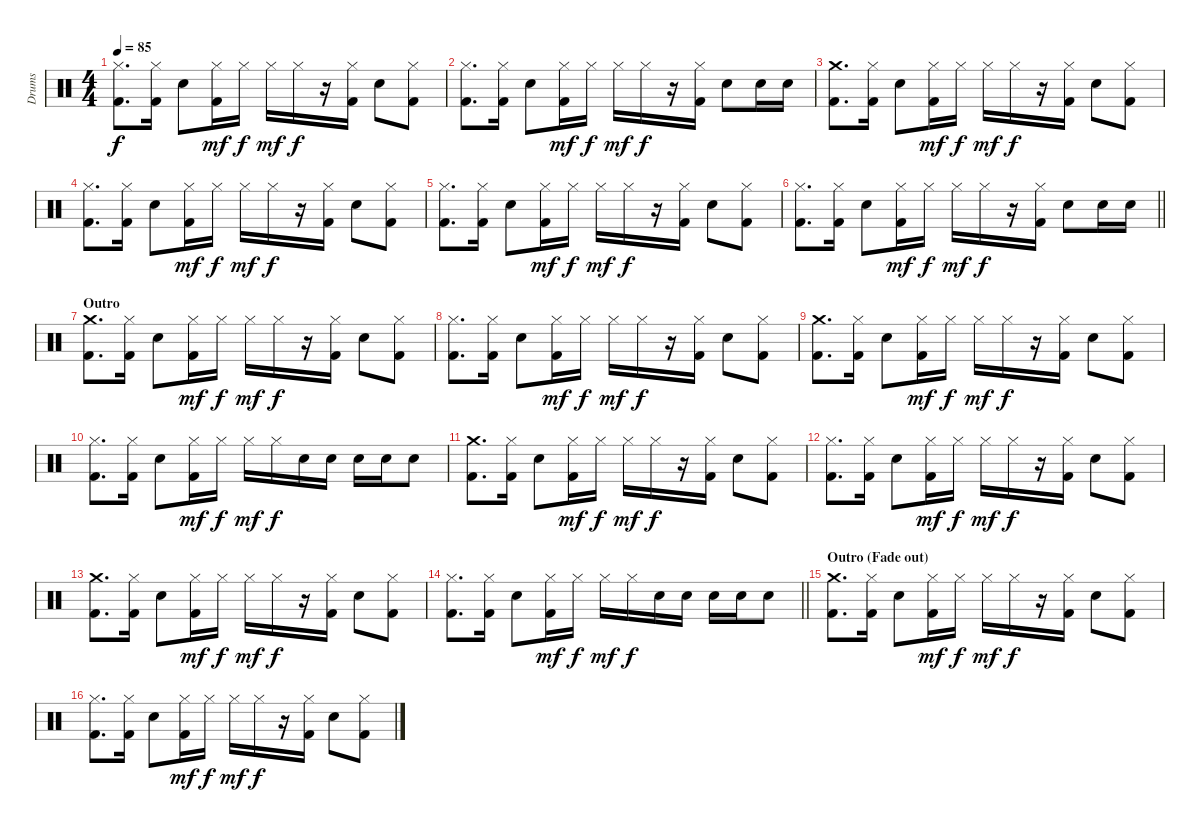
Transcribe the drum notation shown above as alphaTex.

\track ("Drums" "Drums") {instrument percussion}
\staff {score}
\articulation defaults
\ts (4 4)
\tempo 85
\clef neutral
\ks c
("Hi-Hat (closed)" "Kick (hit) 2").8{d dy f} ("Hi-Hat (closed)" "Kick (hit) 2").16 "Snare (hit) 2".8 ("Hi-Hat (closed)" "Kick (hit) 2").16{dy mf} "Hi-Hat (closed)".16{dy f} "Hi-Hat (closed)".16{dy mf} "Hi-Hat (closed)".16{dy f} r.16 ("Hi-Hat (closed)" "Kick (hit) 2").16 "Snare (hit) 2".8 ("Hi-Hat (closed)" "Kick (hit) 2").8 |
("Hi-Hat (closed)" "Kick (hit) 2").8{d} ("Hi-Hat (closed)" "Kick (hit) 2").16 "Snare (hit) 2".8 ("Hi-Hat (closed)" "Kick (hit) 2").16{dy mf} "Hi-Hat (closed)".16{dy f} "Hi-Hat (closed)".16{dy mf} "Hi-Hat (closed)".16{dy f} r.16 ("Hi-Hat (closed)" "Kick (hit) 2").16 "Snare (hit) 2".8 "Snare (hit) 2".16 "Snare (hit) 2".16 |
("Crash medium (hit)" "Kick (hit) 2").8{d} ("Hi-Hat (closed)" "Kick (hit) 2").16 "Snare (hit) 2".8 ("Hi-Hat (closed)" "Kick (hit) 2").16{dy mf} "Hi-Hat (closed)".16{dy f} "Hi-Hat (closed)".16{dy mf} "Hi-Hat (closed)".16{dy f} r.16 ("Hi-Hat (closed)" "Kick (hit) 2").16 "Snare (hit) 2".8 ("Hi-Hat (closed)" "Kick (hit) 2").8 |
("Hi-Hat (closed)" "Kick (hit) 2").8{d} ("Hi-Hat (closed)" "Kick (hit) 2").16 "Snare (hit) 2".8 ("Hi-Hat (closed)" "Kick (hit) 2").16{dy mf} "Hi-Hat (closed)".16{dy f} "Hi-Hat (closed)".16{dy mf} "Hi-Hat (closed)".16{dy f} r.16 ("Hi-Hat (closed)" "Kick (hit) 2").16 "Snare (hit) 2".8 ("Hi-Hat (closed)" "Kick (hit) 2").8 |
("Hi-Hat (closed)" "Kick (hit) 2").8{d} ("Hi-Hat (closed)" "Kick (hit) 2").16 "Snare (hit) 2".8 ("Hi-Hat (closed)" "Kick (hit) 2").16{dy mf} "Hi-Hat (closed)".16{dy f} "Hi-Hat (closed)".16{dy mf} "Hi-Hat (closed)".16{dy f} r.16 ("Hi-Hat (closed)" "Kick (hit) 2").16 "Snare (hit) 2".8 ("Hi-Hat (closed)" "Kick (hit) 2").8 |
\barLineRight lightlight
("Hi-Hat (closed)" "Kick (hit) 2").8{d} ("Hi-Hat (closed)" "Kick (hit) 2").16 "Snare (hit) 2".8 ("Hi-Hat (closed)" "Kick (hit) 2").16{dy mf} "Hi-Hat (closed)".16{dy f} "Hi-Hat (closed)".16{dy mf} "Hi-Hat (closed)".16{dy f} r.16 ("Hi-Hat (closed)" "Kick (hit) 2").16 "Snare (hit) 2".8 "Snare (hit) 2".16 "Snare (hit) 2".16 |
\section ("" "Outro")
("Crash medium (hit)" "Kick (hit) 2").8{d} ("Hi-Hat (closed)" "Kick (hit) 2").16 "Snare (hit) 2".8 ("Hi-Hat (closed)" "Kick (hit) 2").16{dy mf} "Hi-Hat (closed)".16{dy f} "Hi-Hat (closed)".16{dy mf} "Hi-Hat (closed)".16{dy f} r.16 ("Hi-Hat (closed)" "Kick (hit) 2").16 "Snare (hit) 2".8 ("Hi-Hat (closed)" "Kick (hit) 2").8 |
("Hi-Hat (closed)" "Kick (hit) 2").8{d} ("Hi-Hat (closed)" "Kick (hit) 2").16 "Snare (hit) 2".8 ("Hi-Hat (closed)" "Kick (hit) 2").16{dy mf} "Hi-Hat (closed)".16{dy f} "Hi-Hat (closed)".16{dy mf} "Hi-Hat (closed)".16{dy f} r.16 ("Hi-Hat (closed)" "Kick (hit) 2").16 "Snare (hit) 2".8 ("Hi-Hat (closed)" "Kick (hit) 2").8 |
("Crash medium (hit)" "Kick (hit) 2").8{d} ("Hi-Hat (closed)" "Kick (hit) 2").16 "Snare (hit) 2".8 ("Hi-Hat (closed)" "Kick (hit) 2").16{dy mf} "Hi-Hat (closed)".16{dy f} "Hi-Hat (closed)".16{dy mf} "Hi-Hat (closed)".16{dy f} r.16 ("Hi-Hat (closed)" "Kick (hit) 2").16 "Snare (hit) 2".8 ("Hi-Hat (closed)" "Kick (hit) 2").8 |
("Hi-Hat (closed)" "Kick (hit) 2").8{d} ("Hi-Hat (closed)" "Kick (hit) 2").16 "Snare (hit) 2".8 ("Hi-Hat (closed)" "Kick (hit) 2").16{dy mf} "Hi-Hat (closed)".16{dy f} "Hi-Hat (closed)".16{dy mf} "Hi-Hat (closed)".16{dy f} "Snare (hit) 2".16 "Snare (hit) 2".16 "Snare (hit) 2".16 "Snare (hit) 2".16 "Snare (hit) 2".8 |
("Crash medium (hit)" "Kick (hit) 2").8{d} ("Hi-Hat (closed)" "Kick (hit) 2").16 "Snare (hit) 2".8 ("Hi-Hat (closed)" "Kick (hit) 2").16{dy mf} "Hi-Hat (closed)".16{dy f} "Hi-Hat (closed)".16{dy mf} "Hi-Hat (closed)".16{dy f} r.16 ("Hi-Hat (closed)" "Kick (hit) 2").16 "Snare (hit) 2".8 ("Hi-Hat (closed)" "Kick (hit) 2").8 |
("Hi-Hat (closed)" "Kick (hit) 2").8{d} ("Hi-Hat (closed)" "Kick (hit) 2").16 "Snare (hit) 2".8 ("Hi-Hat (closed)" "Kick (hit) 2").16{dy mf} "Hi-Hat (closed)".16{dy f} "Hi-Hat (closed)".16{dy mf} "Hi-Hat (closed)".16{dy f} r.16 ("Hi-Hat (closed)" "Kick (hit) 2").16 "Snare (hit) 2".8 ("Hi-Hat (closed)" "Kick (hit) 2").8 |
("Crash medium (hit)" "Kick (hit) 2").8{d} ("Hi-Hat (closed)" "Kick (hit) 2").16 "Snare (hit) 2".8 ("Hi-Hat (closed)" "Kick (hit) 2").16{dy mf} "Hi-Hat (closed)".16{dy f} "Hi-Hat (closed)".16{dy mf} "Hi-Hat (closed)".16{dy f} r.16 ("Hi-Hat (closed)" "Kick (hit) 2").16 "Snare (hit) 2".8 ("Hi-Hat (closed)" "Kick (hit) 2").8 |
\barLineRight lightlight
("Hi-Hat (closed)" "Kick (hit) 2").8{d} ("Hi-Hat (closed)" "Kick (hit) 2").16 "Snare (hit) 2".8 ("Hi-Hat (closed)" "Kick (hit) 2").16{dy mf} "Hi-Hat (closed)".16{dy f} "Hi-Hat (closed)".16{dy mf} "Hi-Hat (closed)".16{dy f} "Snare (hit) 2".16 "Snare (hit) 2".16 "Snare (hit) 2".16 "Snare (hit) 2".16 "Snare (hit) 2".8 |
\section ("" "Outro (Fade out)")
("Crash medium (hit)" "Kick (hit) 2").8{d} ("Hi-Hat (closed)" "Kick (hit) 2").16 "Snare (hit) 2".8 ("Hi-Hat (closed)" "Kick (hit) 2").16{dy mf} "Hi-Hat (closed)".16{dy f} "Hi-Hat (closed)".16{dy mf} "Hi-Hat (closed)".16{dy f} r.16 ("Hi-Hat (closed)" "Kick (hit) 2").16 "Snare (hit) 2".8 ("Hi-Hat (closed)" "Kick (hit) 2").8 |
("Hi-Hat (closed)" "Kick (hit) 2").8{d} ("Hi-Hat (closed)" "Kick (hit) 2").16 "Snare (hit) 2".8 ("Hi-Hat (closed)" "Kick (hit) 2").16{dy mf} "Hi-Hat (closed)".16{dy f} "Hi-Hat (closed)".16{dy mf} "Hi-Hat (closed)".16{dy f} r.16 ("Hi-Hat (closed)" "Kick (hit) 2").16 "Snare (hit) 2".8 ("Hi-Hat (closed)" "Kick (hit) 2").8
